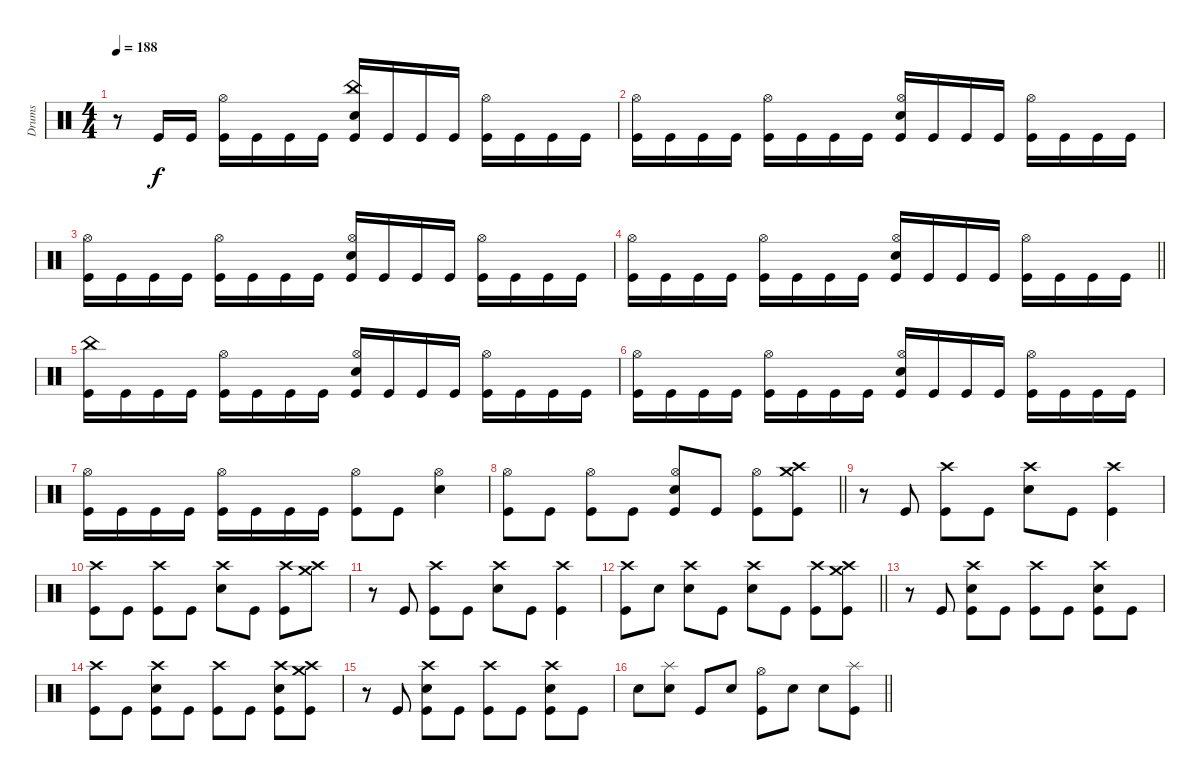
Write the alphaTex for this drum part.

\track ("Drums" "Drums") {instrument percussion}
\staff
\articulation defaults
\ts (4 4)
\tempo 188
\clef neutral
\ks c
r.8{dy f} "Kick (hit)".16 "Kick (hit)".16 ("Hi-Hat (open)" "Kick (hit)").16 "Kick (hit)".16 "Kick (hit)".16 "Kick (hit)".16 ("China (hit)" "Electric Snare (hit)" "Kick (hit)").16 "Kick (hit)".16 "Kick (hit)".16 "Kick (hit)".16 ("Hi-Hat (open)" "Kick (hit)").16 "Kick (hit)".16 "Kick (hit)".16 "Kick (hit)".16 |
("Hi-Hat (open)" "Kick (hit)").16 "Kick (hit)".16 "Kick (hit)".16 "Kick (hit)".16 ("Hi-Hat (open)" "Kick (hit)").16 "Kick (hit)".16 "Kick (hit)".16 "Kick (hit)".16 ("Hi-Hat (open)" "Electric Snare (hit)" "Kick (hit)").16 "Kick (hit)".16 "Kick (hit)".16 "Kick (hit)".16 ("Hi-Hat (open)" "Kick (hit)").16 "Kick (hit)".16 "Kick (hit)".16 "Kick (hit)".16 |
("Hi-Hat (open)" "Kick (hit)").16 "Kick (hit)".16 "Kick (hit)".16 "Kick (hit)".16 ("Hi-Hat (open)" "Kick (hit)").16 "Kick (hit)".16 "Kick (hit)".16 "Kick (hit)".16 ("Hi-Hat (open)" "Electric Snare (hit)" "Kick (hit)").16 "Kick (hit)".16 "Kick (hit)".16 "Kick (hit)".16 ("Hi-Hat (open)" "Kick (hit)").16 "Kick (hit)".16 "Kick (hit)".16 "Kick (hit)".16 |
\barLineRight lightlight
("Hi-Hat (open)" "Kick (hit)").16 "Kick (hit)".16 "Kick (hit)".16 "Kick (hit)".16 ("Hi-Hat (open)" "Kick (hit)").16 "Kick (hit)".16 "Kick (hit)".16 "Kick (hit)".16 ("Hi-Hat (open)" "Electric Snare (hit)" "Kick (hit)").16 "Kick (hit)".16 "Kick (hit)".16 "Kick (hit)".16 ("Hi-Hat (open)" "Kick (hit)").16 "Kick (hit)".16 "Kick (hit)".16 "Kick (hit)".16 |
("China (hit)" "Kick (hit)").16 "Kick (hit)".16 "Kick (hit)".16 "Kick (hit)".16 ("Hi-Hat (open)" "Kick (hit)").16 "Kick (hit)".16 "Kick (hit)".16 "Kick (hit)".16 ("Hi-Hat (open)" "Electric Snare (hit)" "Kick (hit)").16 "Kick (hit)".16 "Kick (hit)".16 "Kick (hit)".16 ("Hi-Hat (open)" "Kick (hit)").16 "Kick (hit)".16 "Kick (hit)".16 "Kick (hit)".16 |
("Hi-Hat (open)" "Kick (hit)").16 "Kick (hit)".16 "Kick (hit)".16 "Kick (hit)".16 ("Hi-Hat (open)" "Kick (hit)").16 "Kick (hit)".16 "Kick (hit)".16 "Kick (hit)".16 ("Hi-Hat (open)" "Electric Snare (hit)" "Kick (hit)").16 "Kick (hit)".16 "Kick (hit)".16 "Kick (hit)".16 ("Hi-Hat (open)" "Kick (hit)").16 "Kick (hit)".16 "Kick (hit)".16 "Kick (hit)".16 |
("Hi-Hat (open)" "Kick (hit)").16 "Kick (hit)".16 "Kick (hit)".16 "Kick (hit)".16 ("Hi-Hat (open)" "Kick (hit)").16 "Kick (hit)".16 "Kick (hit)".16 "Kick (hit)".16 ("Hi-Hat (open)" "Kick (hit)").8 "Kick (hit)".8 ("Hi-Hat (open)" "Electric Snare (hit)").4 |
\barLineRight lightlight
("Hi-Hat (open)" "Kick (hit)").8 "Kick (hit)".8 ("Hi-Hat (open)" "Kick (hit)").8 "Kick (hit)".8 ("Hi-Hat (open)" "Electric Snare (hit)" "Kick (hit)").8 "Kick (hit)".8 ("Hi-Hat (open)" "Kick (hit)").8 ("Crash high (hit)" "Crash medium (hit)" "Kick (hit)").8 |
\section ("" "")
r.8 "Kick (hit)".8 ("Crash high (hit)" "Kick (hit)").8 "Kick (hit)".8 ("Crash high (hit)" "Electric Snare (hit)").8 "Kick (hit)".8 ("Crash high (hit)" "Kick (hit)").4 |
("Crash high (hit)" "Kick (hit)").8 "Kick (hit)".8 ("Crash high (hit)" "Kick (hit)").8 "Kick (hit)".8 ("Crash high (hit)" "Electric Snare (hit)").8 "Kick (hit)".8 ("Crash high (hit)" "Kick (hit)").8 ("Crash high (hit)" "Crash medium (hit)").8 |
r.8 "Kick (hit)".8 ("Crash high (hit)" "Kick (hit)").8 "Kick (hit)".8 ("Crash high (hit)" "Electric Snare (hit)").8 "Kick (hit)".8 ("Crash high (hit)" "Kick (hit)").4 |
\barLineRight lightlight
("Crash high (hit)" "Kick (hit)").8 "Electric Snare (hit)".8 ("Crash high (hit)" "Electric Snare (hit)").8 "Kick (hit)".8 ("Crash high (hit)" "Electric Snare (hit)").8 "Kick (hit)".8 ("Crash high (hit)" "Kick (hit)").8 ("Crash high (hit)" "Crash medium (hit)" "Kick (hit)").8 |
r.8 "Kick (hit)".8 ("Crash high (hit)" "Electric Snare (hit)" "Kick (hit)").8 "Kick (hit)".8 ("Crash high (hit)" "Kick (hit)").8 "Kick (hit)".8 ("Crash high (hit)" "Electric Snare (hit)" "Kick (hit)").8 "Kick (hit)".8 |
("Crash high (hit)" "Kick (hit)").8 "Kick (hit)".8 ("Crash high (hit)" "Electric Snare (hit)" "Kick (hit)").8 "Kick (hit)".8 ("Crash high (hit)" "Kick (hit)").8 "Kick (hit)".8 ("Crash high (hit)" "Electric Snare (hit)" "Kick (hit)").8 ("Crash high (hit)" "Crash medium (hit)" "Kick (hit)").8 |
r.8 "Kick (hit)".8 ("Crash high (hit)" "Electric Snare (hit)" "Kick (hit)").8 "Kick (hit)".8 ("Crash high (hit)" "Kick (hit)").8 "Kick (hit)".8 ("Crash high (hit)" "Electric Snare (hit)" "Kick (hit)").8 "Kick (hit)".8 |
\barLineRight lightlight "Electric Snare (hit)".8
("Splash (hit)" "Electric Snare (hit)").8 "Kick (hit)".8 "Electric Snare (hit)".8 ("Hi-Hat (open)" "Kick (hit)").8 "Electric Snare (hit)".8 "Electric Snare (hit)".8 ("Splash (hit)" "Kick (hit)").8
